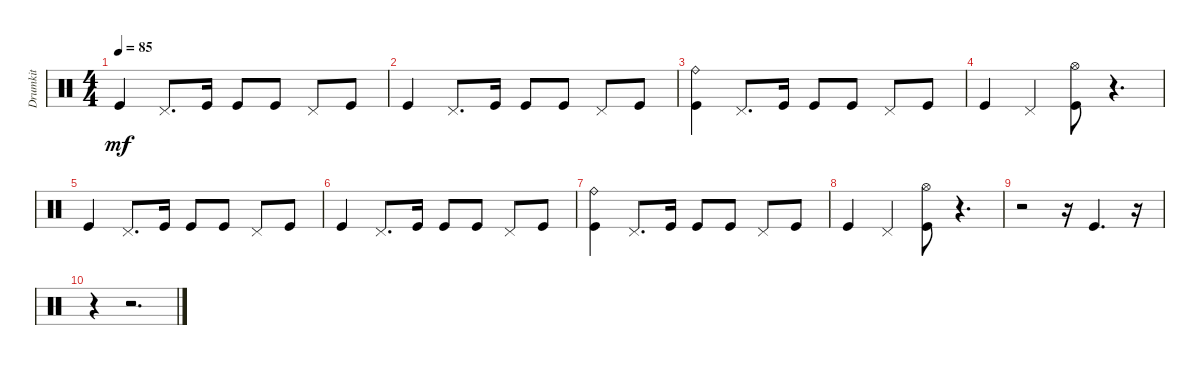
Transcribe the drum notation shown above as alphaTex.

\track ("Drumkit" "Drumkit") {instrument percussion}
\staff {score}
\articulation defaults
\ts (4 4)
\tempo 85
\clef neutral
\ks c "Kick (hit)".4{dy mf} "Pedal Hi-Hat (hit)".8{d} "Kick (hit)".16 "Kick (hit)".8 "Kick (hit)".8 "Pedal Hi-Hat (hit)".8 "Kick (hit)".8
|
"Kick (hit)".4 "Pedal Hi-Hat (hit)".8{d} "Kick (hit)".16 "Kick (hit)".8 "Kick (hit)".8 "Pedal Hi-Hat (hit)".8 "Kick (hit)".8 |
("Kick (hit)" "Ride (bell)").4 "Pedal Hi-Hat (hit)".8{d} "Kick (hit)".16 "Kick (hit)".8 "Kick (hit)".8 "Pedal Hi-Hat (hit)".8 "Kick (hit)".8 |
"Kick (hit)".4 "Pedal Hi-Hat (hit)".4 ("Kick (hit)" "Hi-Hat (open)").8 r.4{d} |
"Kick (hit)".4 "Pedal Hi-Hat (hit)".8{d} "Kick (hit)".16 "Kick (hit)".8 "Kick (hit)".8 "Pedal Hi-Hat (hit)".8 "Kick (hit)".8 |
"Kick (hit)".4 "Pedal Hi-Hat (hit)".8{d} "Kick (hit)".16 "Kick (hit)".8 "Kick (hit)".8 "Pedal Hi-Hat (hit)".8 "Kick (hit)".8 |
("Kick (hit)" "Ride (bell)").4 "Pedal Hi-Hat (hit)".8{d} "Kick (hit)".16 "Kick (hit)".8 "Kick (hit)".8 "Pedal Hi-Hat (hit)".8 "Kick (hit)".8 |
"Kick (hit)".4 "Pedal Hi-Hat (hit)".4 ("Kick (hit)" "Hi-Hat (open)").8 r.4{d} |
r.2 r.16 "Kick (hit)".4{d} r.16 |
r.4 r.2{d}
